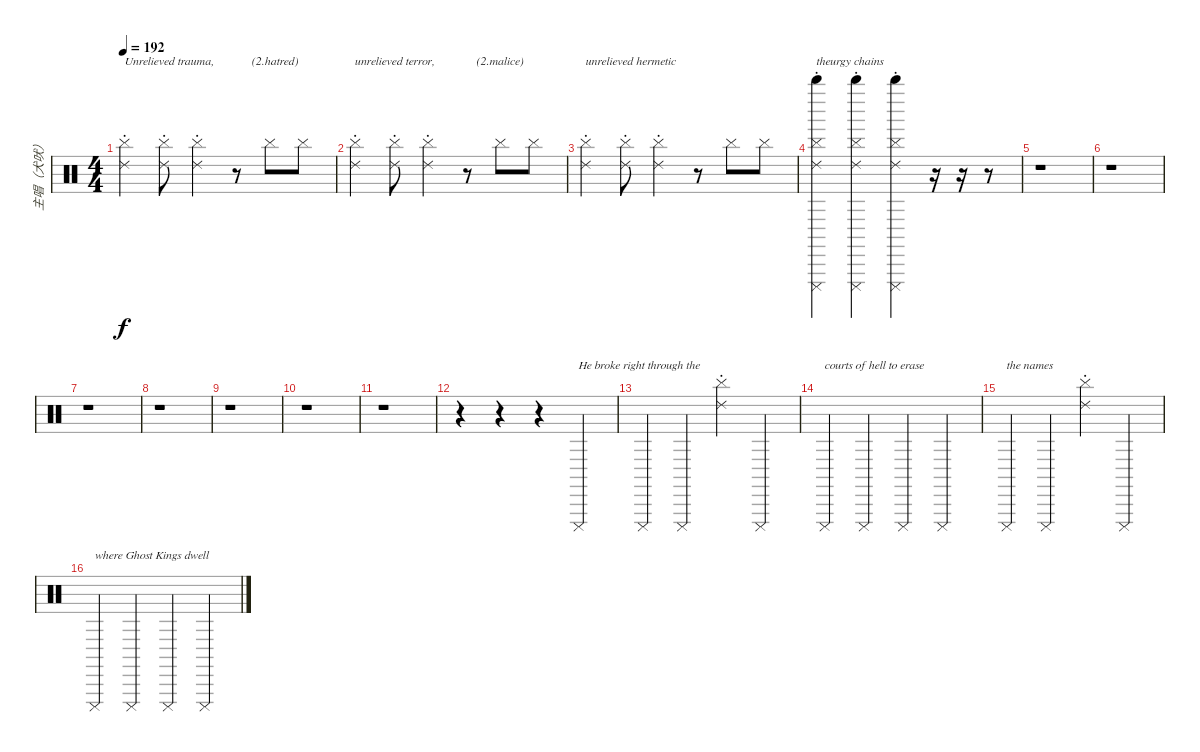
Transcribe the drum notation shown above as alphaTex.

\track ("主唱（犬吠）" "主唱（犬吠）") {instrument percussion}
\staff {score}
\articulation defaults
\ts (4 4)
\tempo 192
\clef neutral
\ks c
("Ride (choke) 2" "Cymbal (hit)").4{txt "Unrelieved trauma, " dy f} ("Ride (choke) 2" "Cymbal (hit)").8 ("Ride (choke) 2" "Cymbal (hit)").4 r.8{txt "     (2.hatred)"} "Cymbal (hit)".8 "Cymbal (hit)".8 |
("Ride (choke) 2" "Cymbal (hit)").4{txt "unrelieved terror,"} ("Ride (choke) 2" "Cymbal (hit)").8 ("Ride (choke) 2" "Cymbal (hit)").4 r.8{txt "   (2.malice)"} "Cymbal (hit)".8 "Cymbal (hit)".8 |
("Ride (choke) 2" "Cymbal (hit)").4{txt "unrelieved hermetic"} ("Ride (choke) 2" "Cymbal (hit)").8 ("Ride (choke) 2" "Cymbal (hit)").4 r.8 "Cymbal (hit)".8 "Cymbal (hit)".8 |
("Cuica (mute)" "Whistle high (hit)" "Ride (choke) 2" "Cymbal (hit)").4{txt "theurgy chains"} ("Cuica (mute)" "Whistle high (hit)" "Ride (choke) 2" "Cymbal (hit)").4 ("Cuica (mute)" "Whistle high (hit)" "Ride (choke) 2" "Cymbal (hit)").4 r.16 r.16 r.8 |
r.1 |
r.1 |
r.1 |
r.1 |
r.1 |
r.1 |
r.1 |
r.4 r.4 r.4 "Cuica (mute)".4{txt "He broke right through the"} |
"Cuica (mute)".4 "Cuica (mute)".4 ("Ride (choke) 2" "Cymbal (hit)").4 "Cuica (mute)".4 |
"Cuica (mute)".4{txt "courts of hell to erase"} "Cuica (mute)".4 "Cuica (mute)".4 "Cuica (mute)".4 |
"Cuica (mute)".4{txt "the names "} "Cuica (mute)".4 ("Ride (choke) 2" "Cymbal (hit)").4 "Cuica (mute)".4 |
"Cuica (mute)".4{txt "where Ghost Kings dwell "} "Cuica (mute)".4 "Cuica (mute)".4 "Cuica (mute)".4
